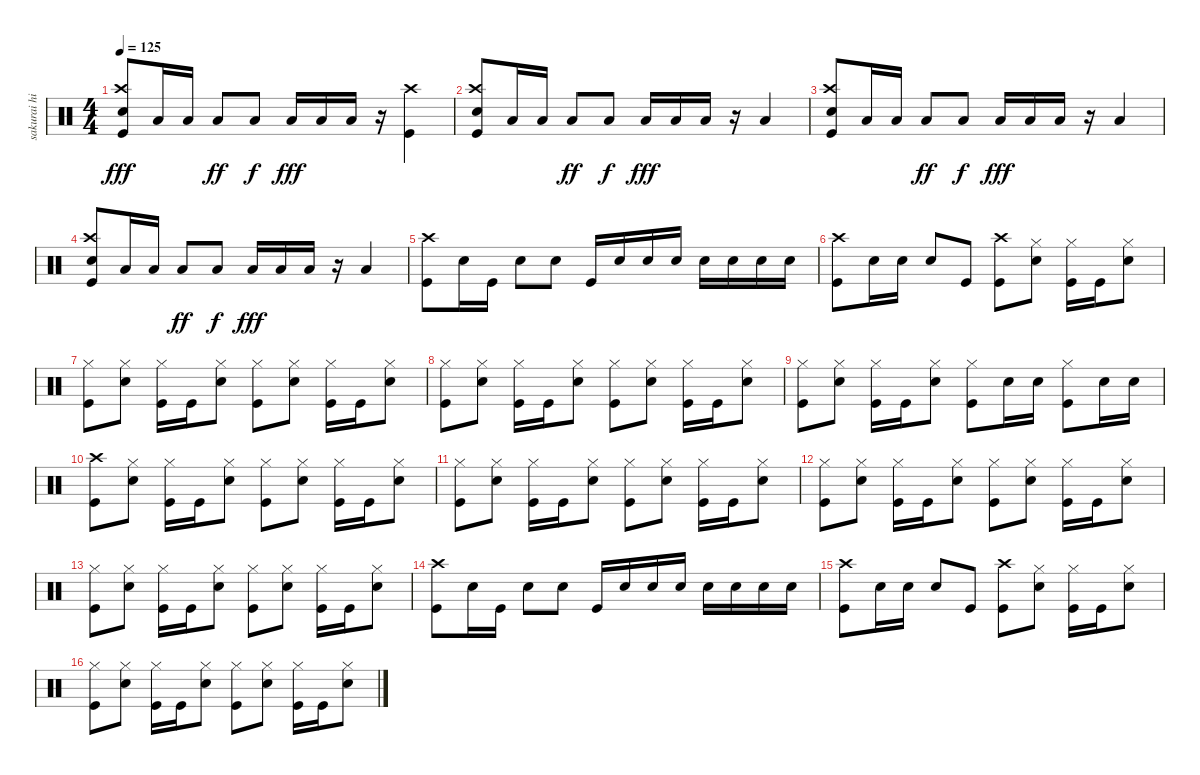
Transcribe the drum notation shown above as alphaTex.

\track ("sakurai hiroshi" "sakurai hi") {instrument percussion}
\staff {score}
\articulation defaults
\ts (4 4)
\tempo 125
\clef neutral
\ks c
("Kick (hit)" "Crash high (hit)" "Snare (hit) 2").8{dy fff} "Low Floor Tom (hit)".16 "Low Floor Tom (hit)".16 "Low Floor Tom (hit)".8{dy ff} "Low Floor Tom (hit)".8{dy f} "Low Floor Tom (hit)".16{dy fff} "Low Floor Tom (hit)".16 "Low Floor Tom (hit)".16 r.16 ("Kick (hit)" "Crash high (hit)").4 |
("Kick (hit)" "Crash high (hit)" "Snare (hit) 2").8 "Low Floor Tom (hit)".16 "Low Floor Tom (hit)".16 "Low Floor Tom (hit)".8{dy ff} "Low Floor Tom (hit)".8{dy f} "Low Floor Tom (hit)".16{dy fff} "Low Floor Tom (hit)".16 "Low Floor Tom (hit)".16 r.16 "Low Floor Tom (hit)".4 |
("Kick (hit)" "Crash high (hit)" "Snare (hit) 2").8 "Low Floor Tom (hit)".16 "Low Floor Tom (hit)".16 "Low Floor Tom (hit)".8{dy ff} "Low Floor Tom (hit)".8{dy f} "Low Floor Tom (hit)".16{dy fff} "Low Floor Tom (hit)".16 "Low Floor Tom (hit)".16 r.16 "Low Floor Tom (hit)".4 |
("Kick (hit)" "Crash high (hit)" "Snare (hit) 2").8 "Low Floor Tom (hit)".16 "Low Floor Tom (hit)".16 "Low Floor Tom (hit)".8{dy ff} "Low Floor Tom (hit)".8{dy f} "Low Floor Tom (hit)".16{dy fff} "Low Floor Tom (hit)".16 "Low Floor Tom (hit)".16 r.16 "Low Floor Tom (hit)".4 |
("Crash high (hit)" "Kick (hit)").8 "Snare (hit) 2".16 "Kick (hit)".16 "Snare (hit) 2".8 "Snare (hit) 2".8 "Kick (hit)".16 "Snare (hit) 2".16 "Snare (hit) 2".16 "Snare (hit) 2".16 "Snare (hit) 2".16 "Snare (hit) 2".16 "Snare (hit) 2".16 "Snare (hit) 2".16 |
("Kick (hit)" "Crash high (hit)").8 "Snare (hit) 2".16 "Snare (hit) 2".16 "Snare (hit) 2".8 "Kick (hit)".8 ("Kick (hit)" "Crash high (hit)").8 ("Hi-Hat (closed)" "Snare (hit) 2").8 ("Hi-Hat (closed)" "Kick (hit)").16 "Kick (hit)".16 ("Hi-Hat (closed)" "Snare (hit) 2").8 |
("Kick (hit)" "Hi-Hat (closed)").8 ("Hi-Hat (closed)" "Snare (hit) 2").8 ("Hi-Hat (closed)" "Kick (hit)").16 "Kick (hit)".16 ("Hi-Hat (closed)" "Snare (hit) 2").8 ("Kick (hit)" "Hi-Hat (closed)").8 ("Hi-Hat (closed)" "Snare (hit) 2").8 ("Hi-Hat (closed)" "Kick (hit)").16 "Kick (hit)".16 ("Hi-Hat (closed)" "Snare (hit) 2").8 |
("Kick (hit)" "Hi-Hat (closed)").8 ("Hi-Hat (closed)" "Snare (hit) 2").8 ("Hi-Hat (closed)" "Kick (hit)").16 "Kick (hit)".16 ("Hi-Hat (closed)" "Snare (hit) 2").8 ("Kick (hit)" "Hi-Hat (closed)").8 ("Hi-Hat (closed)" "Snare (hit) 2").8 ("Hi-Hat (closed)" "Kick (hit)").16 "Kick (hit)".16 ("Hi-Hat (closed)" "Snare (hit) 2").8 |
("Kick (hit)" "Hi-Hat (closed)").8 ("Hi-Hat (closed)" "Snare (hit) 2").8 ("Hi-Hat (closed)" "Kick (hit)").16 "Kick (hit)".16 ("Hi-Hat (closed)" "Snare (hit) 2").8 ("Kick (hit)" "Hi-Hat (closed)").8 "Snare (hit) 2".16 "Snare (hit) 2".16 ("Hi-Hat (closed)" "Kick (hit)").8 "Snare (hit) 2".16 "Snare (hit) 2".16 |
("Kick (hit)" "Crash high (hit)").8 ("Hi-Hat (closed)" "Snare (hit) 2").8 ("Hi-Hat (closed)" "Kick (hit)").16 "Kick (hit)".16 ("Hi-Hat (closed)" "Snare (hit) 2").8 ("Kick (hit)" "Hi-Hat (closed)").8 ("Hi-Hat (closed)" "Snare (hit) 2").8 ("Hi-Hat (closed)" "Kick (hit)").16 "Kick (hit)".16 ("Hi-Hat (closed)" "Snare (hit) 2").8 |
("Kick (hit)" "Hi-Hat (closed)").8 ("Hi-Hat (closed)" "Snare (hit) 2").8 ("Hi-Hat (closed)" "Kick (hit)").16 "Kick (hit)".16 ("Hi-Hat (closed)" "Snare (hit) 2").8 ("Kick (hit)" "Hi-Hat (closed)").8 ("Hi-Hat (closed)" "Snare (hit) 2").8 ("Hi-Hat (closed)" "Kick (hit)").16 "Kick (hit)".16 ("Hi-Hat (closed)" "Snare (hit) 2").8 |
("Kick (hit)" "Hi-Hat (closed)").8 ("Hi-Hat (closed)" "Snare (hit) 2").8 ("Hi-Hat (closed)" "Kick (hit)").16 "Kick (hit)".16 ("Hi-Hat (closed)" "Snare (hit) 2").8 ("Kick (hit)" "Hi-Hat (closed)").8 ("Hi-Hat (closed)" "Snare (hit) 2").8 ("Hi-Hat (closed)" "Kick (hit)").16 "Kick (hit)".16 ("Hi-Hat (closed)" "Snare (hit) 2").8 |
("Kick (hit)" "Hi-Hat (closed)").8 ("Hi-Hat (closed)" "Snare (hit) 2").8 ("Hi-Hat (closed)" "Kick (hit)").16 "Kick (hit)".16 ("Hi-Hat (closed)" "Snare (hit) 2").8 ("Kick (hit)" "Hi-Hat (closed)").8 ("Hi-Hat (closed)" "Snare (hit) 2").8 ("Hi-Hat (closed)" "Kick (hit)").16 "Kick (hit)".16 ("Hi-Hat (closed)" "Snare (hit) 2").8 |
("Crash high (hit)" "Kick (hit)").8 "Snare (hit) 2".16 "Kick (hit)".16 "Snare (hit) 2".8 "Snare (hit) 2".8 "Kick (hit)".16 "Snare (hit) 2".16 "Snare (hit) 2".16 "Snare (hit) 2".16 "Snare (hit) 2".16 "Snare (hit) 2".16 "Snare (hit) 2".16 "Snare (hit) 2".16 |
("Kick (hit)" "Crash high (hit)").8 "Snare (hit) 2".16 "Snare (hit) 2".16 "Snare (hit) 2".8 "Kick (hit)".8 ("Kick (hit)" "Crash high (hit)").8 ("Hi-Hat (closed)" "Snare (hit) 2").8 ("Hi-Hat (closed)" "Kick (hit)").16 "Kick (hit)".16 ("Hi-Hat (closed)" "Snare (hit) 2").8 |
("Kick (hit)" "Hi-Hat (closed)").8 ("Hi-Hat (closed)" "Snare (hit) 2").8 ("Hi-Hat (closed)" "Kick (hit)").16 "Kick (hit)".16 ("Hi-Hat (closed)" "Snare (hit) 2").8 ("Kick (hit)" "Hi-Hat (closed)").8 ("Hi-Hat (closed)" "Snare (hit) 2").8 ("Hi-Hat (closed)" "Kick (hit)").16 "Kick (hit)".16 ("Hi-Hat (closed)" "Snare (hit) 2").8
